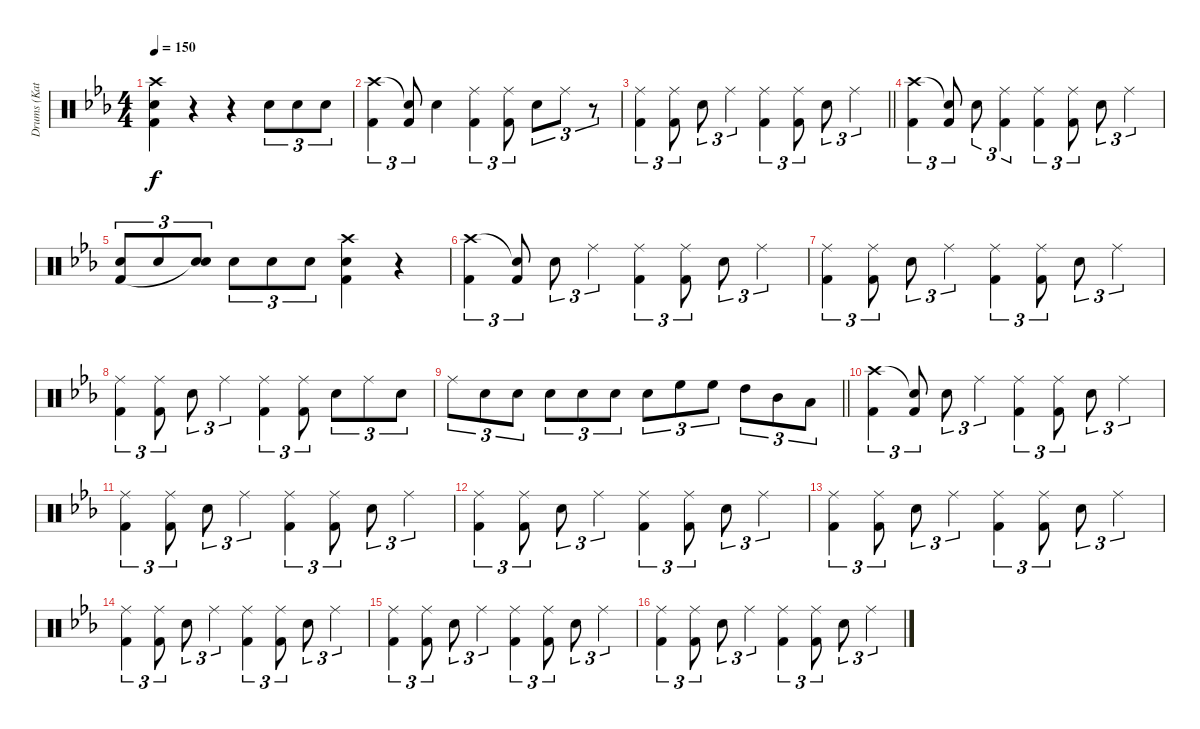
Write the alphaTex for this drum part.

\track ("Drums (Katsuji)" "Drums (Kat") {instrument percussion}
\staff {score}
\articulation defaults
\ts (4 4)
\tempo 150
\clef neutral
\ks eb
("Crash high (hit)" "Snare (hit) 2" "Kick (hit) 2").4{dy f} r.4 r.4 "Snare (hit) 2".8{tu (3 2)} "Snare (hit) 2".8{tu (3 2)} "Snare (hit) 2".8{tu (3 2)} |
("Crash high (hit)" "Kick (hit) 2").4{tu (3 2)} ("Snare (hit)"{t} "Kick (hit) 2").8{tu (3 2)} "Snare (hit) 2".4 ("Ride (middle)" "Kick (hit) 2").4{tu (3 2)} ("Ride (middle)" "Kick (hit) 2").8{tu (3 2)} "Snare (hit) 2".8{tu (3 2)} "Ride (middle)".8{tu (3 2)} r.8{tu (3 2)} |
\barLineRight lightlight
("Ride (middle)" "Kick (hit) 2").4{tu (3 2)} ("Ride (middle)" "Kick (hit) 2").8{tu (3 2)} "Snare (hit) 2".8{tu (3 2)} "Ride (middle)".4{tu (3 2)} ("Ride (middle)" "Kick (hit) 2").4{tu (3 2)} ("Ride (middle)" "Kick (hit) 2").8{tu (3 2)} "Snare (hit) 2".8{tu (3 2)} "Ride (middle)".4{tu (3 2)} |
("Crash high (hit)" "Kick (hit) 2").4{tu (3 2)} ("Snare (hit)"{t} "Kick (hit) 2").8{tu (3 2)} "Snare (hit) 2".8{tu (3 2)} ("Ride (middle)" "Kick (hit) 2").4{tu (3 2)} ("Ride (middle)" "Kick (hit) 2").4{tu (3 2)} ("Ride (middle)" "Kick (hit) 2").8{tu (3 2)} "Snare (hit) 2".8{tu (3 2)} "Ride (middle)".4{tu (3 2)} |
("Snare (hit) 2" "Kick (hit) 2").8{tu (3 2)} "Snare (hit) 2".8{tu (3 2)} ("Snare (hit) 2" "Snare (hit)"{t}).8{tu (3 2)} "Snare (hit) 2".8{tu (3 2)} "Snare (hit) 2".8{tu (3 2)} "Snare (hit) 2".8{tu (3 2)} ("Crash high (hit)" "Snare (hit) 2" "Kick (hit) 2").4 r.4 |
("Crash high (hit)" "Kick (hit) 2").4{tu (3 2)} ("Snare (hit)"{t} "Kick (hit) 2").8{tu (3 2)} "Snare (hit) 2".8{tu (3 2)} "Ride (middle)".4{tu (3 2)} ("Ride (middle)" "Kick (hit) 2").4{tu (3 2)} ("Ride (middle)" "Kick (hit) 2").8{tu (3 2)} "Snare (hit) 2".8{tu (3 2)} "Ride (middle)".4{tu (3 2)} |
("Ride (middle)" "Kick (hit) 2").4{tu (3 2)} ("Ride (middle)" "Kick (hit) 2").8{tu (3 2)} "Snare (hit) 2".8{tu (3 2)} "Ride (middle)".4{tu (3 2)} ("Ride (middle)" "Kick (hit) 2").4{tu (3 2)} ("Ride (middle)" "Kick (hit) 2").8{tu (3 2)} "Snare (hit) 2".8{tu (3 2)} "Ride (middle)".4{tu (3 2)} |
("Ride (middle)" "Kick (hit) 2").4{tu (3 2)} ("Ride (middle)" "Kick (hit) 2").8{tu (3 2)} "Snare (hit) 2".8{tu (3 2)} "Ride (middle)".4{tu (3 2)} ("Ride (middle)" "Kick (hit) 2").4{tu (3 2)} ("Ride (middle)" "Kick (hit) 2").8{tu (3 2)} "Snare (hit) 2".8{tu (3 2)} "Ride (middle)".8{tu (3 2)} "Snare (hit) 2".8{tu (3 2)} |
\barLineRight lightlight "Ride (middle)".8{tu (3 2)} "Snare (hit) 2".8{tu (3 2)} "Snare (hit) 2".8{tu (3 2)} "Snare (hit) 2".8{tu (3 2)} "Snare (hit) 2".8{tu (3 2)} "Snare (hit) 2".8{tu (3 2)} "Snare (hit) 2".8{tu (3 2)} "High Floor Tom (hit)".8{tu (3 2)} "High Floor Tom (hit)".8{tu (3 2)} "High Tom (hit)".8{tu (3 2)} "Mid Tom (hit)".8{tu (3 2)} "Low Tom (hit)".8{tu (3 2)}
|
("Crash high (hit)" "Kick (hit) 2").4{tu (3 2)} ("Snare (hit)"{t} "Kick (hit) 2").8{tu (3 2)} "Snare (hit) 2".8{tu (3 2)} "Ride (middle)".4{tu (3 2)} ("Ride (middle)" "Kick (hit) 2").4{tu (3 2)} ("Ride (middle)" "Kick (hit) 2").8{tu (3 2)} "Snare (hit) 2".8{tu (3 2)} "Ride (middle)".4{tu (3 2)} |
("Ride (middle)" "Kick (hit) 2").4{tu (3 2)} ("Ride (middle)" "Kick (hit) 2").8{tu (3 2)} "Snare (hit) 2".8{tu (3 2)} "Ride (middle)".4{tu (3 2)} ("Ride (middle)" "Kick (hit) 2").4{tu (3 2)} ("Ride (middle)" "Kick (hit) 2").8{tu (3 2)} "Snare (hit) 2".8{tu (3 2)} "Ride (middle)".4{tu (3 2)} |
("Ride (middle)" "Kick (hit) 2").4{tu (3 2)} ("Ride (middle)" "Kick (hit) 2").8{tu (3 2)} "Snare (hit) 2".8{tu (3 2)} "Ride (middle)".4{tu (3 2)} ("Ride (middle)" "Kick (hit) 2").4{tu (3 2)} ("Ride (middle)" "Kick (hit) 2").8{tu (3 2)} "Snare (hit) 2".8{tu (3 2)} "Ride (middle)".4{tu (3 2)} |
("Ride (middle)" "Kick (hit) 2").4{tu (3 2)} ("Ride (middle)" "Kick (hit) 2").8{tu (3 2)} "Snare (hit) 2".8{tu (3 2)} "Ride (middle)".4{tu (3 2)} ("Ride (middle)" "Kick (hit) 2").4{tu (3 2)} ("Ride (middle)" "Kick (hit) 2").8{tu (3 2)} "Snare (hit) 2".8{tu (3 2)} "Ride (middle)".4{tu (3 2)} |
("Ride (middle)" "Kick (hit) 2").4{tu (3 2)} ("Ride (middle)" "Kick (hit) 2").8{tu (3 2)} "Snare (hit) 2".8{tu (3 2)} "Ride (middle)".4{tu (3 2)} ("Ride (middle)" "Kick (hit) 2").4{tu (3 2)} ("Ride (middle)" "Kick (hit) 2").8{tu (3 2)} "Snare (hit) 2".8{tu (3 2)} "Ride (middle)".4{tu (3 2)} |
("Ride (middle)" "Kick (hit) 2").4{tu (3 2)} ("Ride (middle)" "Kick (hit) 2").8{tu (3 2)} "Snare (hit) 2".8{tu (3 2)} "Ride (middle)".4{tu (3 2)} ("Ride (middle)" "Kick (hit) 2").4{tu (3 2)} ("Ride (middle)" "Kick (hit) 2").8{tu (3 2)} "Snare (hit) 2".8{tu (3 2)} "Ride (middle)".4{tu (3 2)} |
("Ride (middle)" "Kick (hit) 2").4{tu (3 2)} ("Ride (middle)" "Kick (hit) 2").8{tu (3 2)} "Snare (hit) 2".8{tu (3 2)} "Ride (middle)".4{tu (3 2)} ("Ride (middle)" "Kick (hit) 2").4{tu (3 2)} ("Ride (middle)" "Kick (hit) 2").8{tu (3 2)} "Snare (hit) 2".8{tu (3 2)} "Ride (middle)".4{tu (3 2)}
